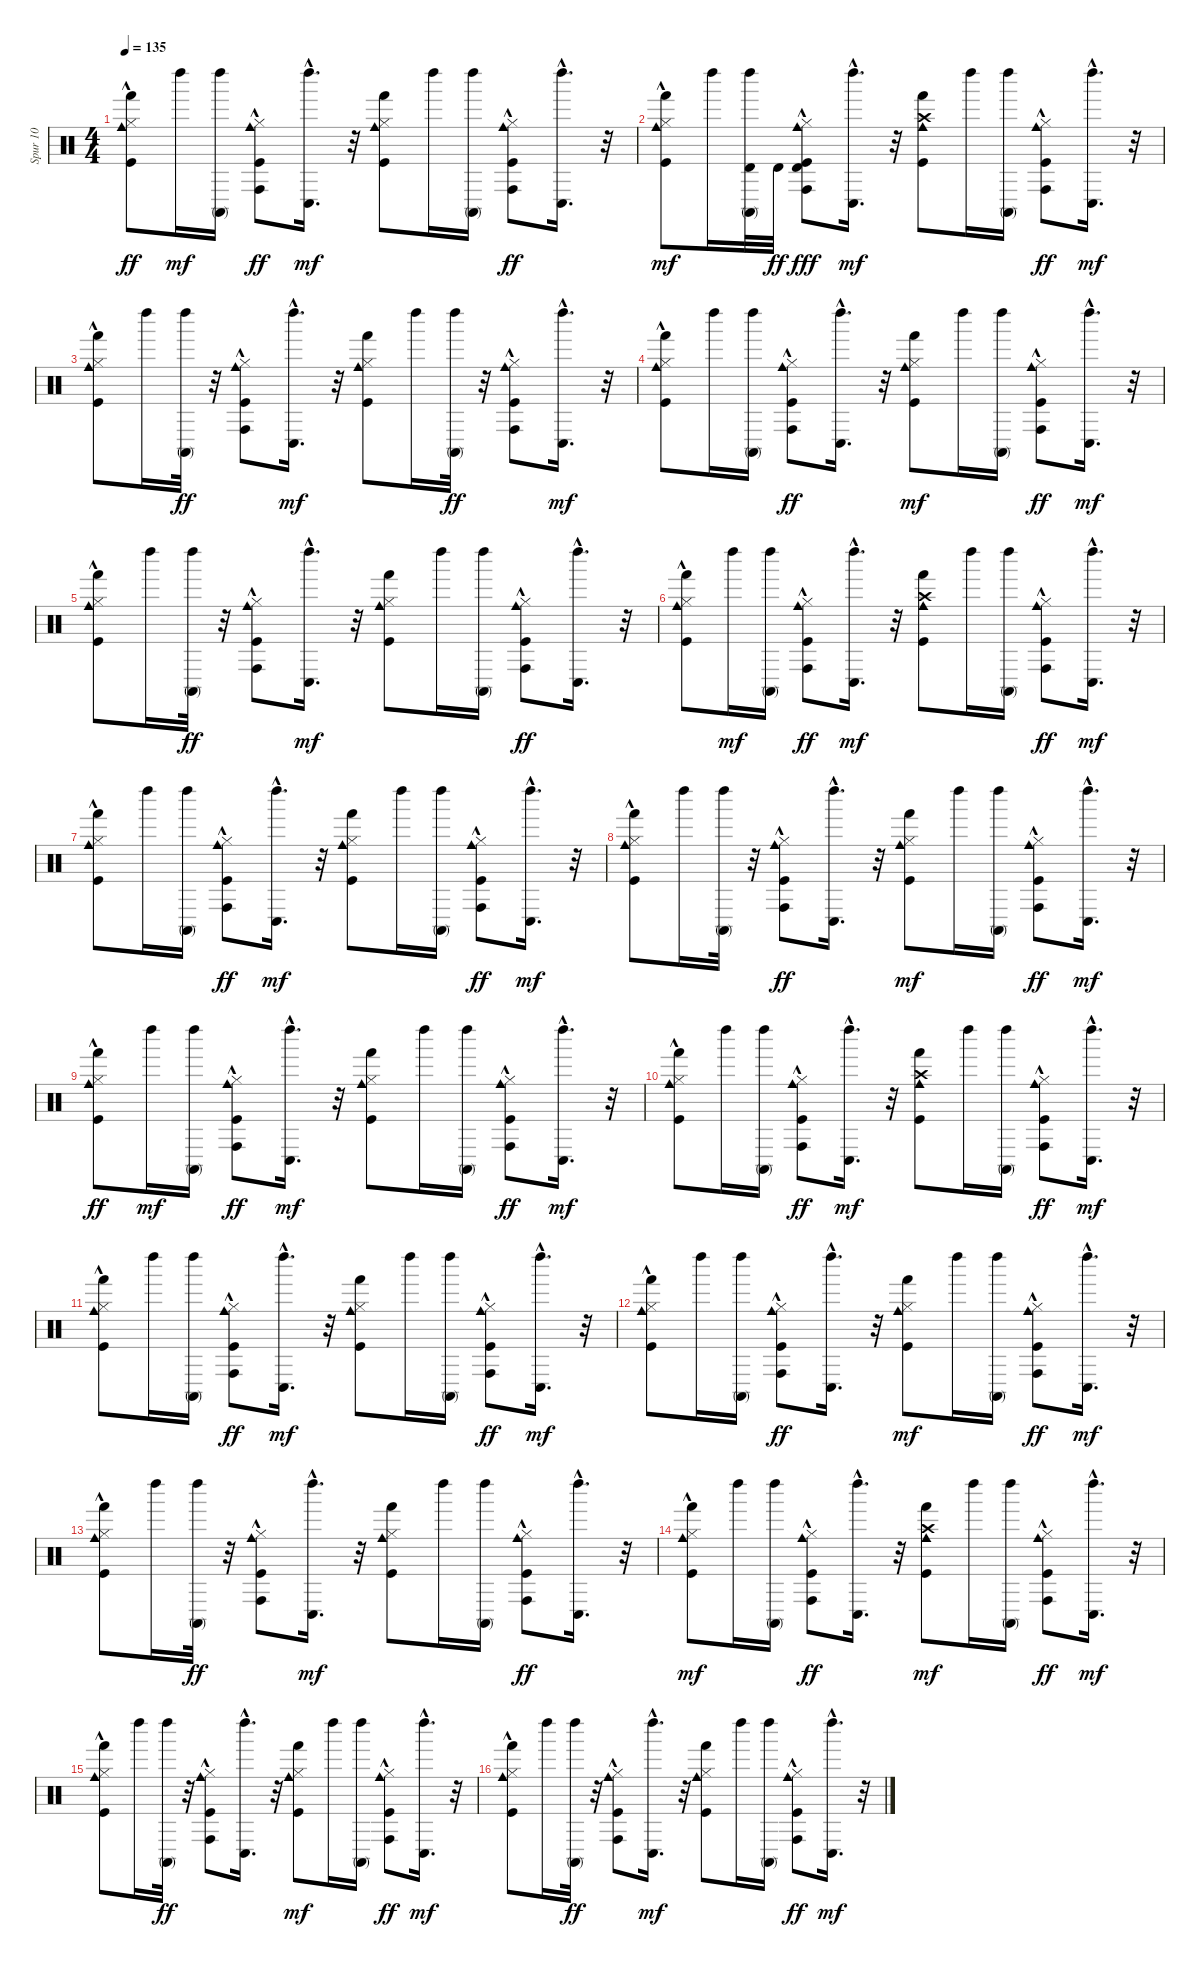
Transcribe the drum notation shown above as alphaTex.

\track ("Spur 10" "Spur 10") {instrument percussion}
\staff {score}
\articulation defaults
\ts (4 4)
\tempo 135
\clef neutral
\ks c
("Hi-Hat (closed)" "Cowbell medium (hit)" "Kick (hit)" "Hand (hit)"{hac}).8{dy ff} "Left Maraca (hit)".16{dy mf} ("Conga high (mute)" "Left Maraca (hit)").16 ("Kick (hit)"{hac} "Hi-Hat (closed)" "Cowbell medium (hit)" "Conga high (hit)"{hac}).8{dy ff} ("Conga low (hit)"{hac} "Left Maraca (hit)").16{d dy mf} r.32 ("Kick (hit)" "Hi-Hat (closed)" "Cowbell medium (hit)" "Hand (hit)").8 "Left Maraca (hit)".16 ("Conga high (mute)" "Left Maraca (hit)").16 ("Kick (hit)" "Hi-Hat (closed)" "Cowbell medium (hit)" "Conga high (hit)"{hac}).8{dy ff} ("Left Maraca (hit)" "Conga low (hit)"{hac}).16{d} r.32 |
("Kick (hit)" "Hi-Hat (closed)" "Cowbell medium (hit)" "Hand (hit)"{hac}).8{dy mf} "Left Maraca (hit)".16 ("Conga high (mute)" "Timbale high (hit)" "Left Maraca (hit)").32 "Timbale high (hit)".32{dy ff} ("Kick (hit)"{hac} "Hi-Hat (closed)" "Cowbell medium (hit)" "Conga high (hit)"{hac} "Timbale high (hit)").8{dy fff} ("Conga low (hit)"{hac} "Left Maraca (hit)").16{d dy mf} r.32 ("Kick (hit)" "Crash high (hit)" "Cowbell medium (hit)" "Hand (hit)").8 "Left Maraca (hit)".16 ("Conga high (mute)" "Left Maraca (hit)").16 ("Kick (hit)" "Hi-Hat (closed)" "Cowbell medium (hit)" "Conga high (hit)"{hac}).8{dy ff} ("Conga low (hit)"{hac} "Left Maraca (hit)").16{d dy mf} r.32 |
("Hi-Hat (closed)" "Kick (hit)" "Cowbell medium (hit)" "Hand (hit)"{hac}).8 "Left Maraca (hit)".16 ("Left Maraca (hit)" "Conga high (mute)").32{dy ff} r.32 ("Kick (hit)"{hac} "Hi-Hat (closed)" "Cowbell medium (hit)" "Conga high (hit)"{hac}).8 ("Conga low (hit)"{hac} "Left Maraca (hit)").16{d dy mf} r.32 ("Kick (hit)" "Hi-Hat (closed)" "Cowbell medium (hit)" "Hand (hit)").8 "Left Maraca (hit)".16 ("Left Maraca (hit)" "Conga high (mute)").32{dy ff} r.32 ("Kick (hit)" "Hi-Hat (closed)" "Cowbell medium (hit)" "Conga high (hit)"{hac}).8 ("Conga low (hit)"{hac} "Left Maraca (hit)").16{d dy mf} r.32 |
("Kick (hit)" "Hi-Hat (closed)" "Cowbell medium (hit)" "Hand (hit)"{hac}).8 "Left Maraca (hit)".16 ("Conga high (mute)" "Left Maraca (hit)").16 ("Kick (hit)"{hac} "Hi-Hat (closed)" "Cowbell medium (hit)" "Conga high (hit)"{hac}).8{dy ff} ("Left Maraca (hit)" "Conga low (hit)"{hac}).16{d} r.32 ("Kick (hit)" "Hi-Hat (closed)" "Cowbell medium (hit)" "Hand (hit)").8{dy mf} "Left Maraca (hit)".16 ("Conga high (mute)" "Left Maraca (hit)").16 ("Hi-Hat (closed)" "Kick (hit)" "Cowbell medium (hit)" "Conga high (hit)"{hac}).8{dy ff} ("Conga low (hit)"{hac} "Left Maraca (hit)").16{d dy mf} r.32 |
("Kick (hit)" "Hi-Hat (closed)" "Cowbell medium (hit)" "Hand (hit)"{hac}).8 "Left Maraca (hit)".16 ("Left Maraca (hit)" "Conga high (mute)").32{dy ff} r.32 ("Kick (hit)"{hac} "Hi-Hat (closed)" "Cowbell medium (hit)" "Conga high (hit)"{hac}).8 ("Conga low (hit)"{hac} "Left Maraca (hit)").16{d dy mf} r.32 ("Kick (hit)" "Hi-Hat (closed)" "Cowbell medium (hit)" "Hand (hit)").8 "Left Maraca (hit)".16 ("Conga high (mute)" "Left Maraca (hit)").16 ("Kick (hit)" "Hi-Hat (closed)" "Cowbell medium (hit)" "Conga high (hit)"{hac}).8{dy ff} ("Left Maraca (hit)" "Conga low (hit)"{hac}).16{d} r.32 |
("Hi-Hat (closed)" "Cowbell medium (hit)" "Kick (hit)" "Hand (hit)"{hac}).8 "Left Maraca (hit)".16{dy mf} ("Conga high (mute)" "Left Maraca (hit)").16 ("Kick (hit)"{hac} "Hi-Hat (closed)" "Cowbell medium (hit)" "Conga high (hit)"{hac}).8{dy ff} ("Conga low (hit)"{hac} "Left Maraca (hit)").16{d dy mf} r.32 ("Kick (hit)" "Crash high (hit)" "Cowbell medium (hit)" "Hand (hit)").8 "Left Maraca (hit)".16 ("Conga high (mute)" "Left Maraca (hit)").16 ("Kick (hit)" "Hi-Hat (closed)" "Cowbell medium (hit)" "Conga high (hit)"{hac}).8{dy ff} ("Conga low (hit)"{hac} "Left Maraca (hit)").16{d dy mf} r.32 |
("Kick (hit)" "Hi-Hat (closed)" "Cowbell medium (hit)" "Hand (hit)"{hac}).8 "Left Maraca (hit)".16 ("Conga high (mute)" "Left Maraca (hit)").16 ("Kick (hit)"{hac} "Hi-Hat (closed)" "Cowbell medium (hit)" "Conga high (hit)"{hac}).8{dy ff} ("Conga low (hit)"{hac} "Left Maraca (hit)").16{d dy mf} r.32 ("Kick (hit)" "Hi-Hat (closed)" "Cowbell medium (hit)" "Hand (hit)").8 "Left Maraca (hit)".16 ("Conga high (mute)" "Left Maraca (hit)").16 ("Kick (hit)" "Hi-Hat (closed)" "Cowbell medium (hit)" "Conga high (hit)"{hac}).8{dy ff} ("Conga low (hit)"{hac} "Left Maraca (hit)").16{d dy mf} r.32 |
("Kick (hit)" "Hi-Hat (closed)" "Cowbell medium (hit)" "Hand (hit)"{hac}).8 "Left Maraca (hit)".16 ("Conga high (mute)" "Left Maraca (hit)").32 r.32 ("Kick (hit)"{hac} "Hi-Hat (closed)" "Cowbell medium (hit)" "Conga high (hit)"{hac}).8{dy ff} ("Left Maraca (hit)" "Conga low (hit)"{hac}).16{d} r.32 ("Kick (hit)" "Hi-Hat (closed)" "Cowbell medium (hit)" "Hand (hit)").8{dy mf} "Left Maraca (hit)".16 ("Conga high (mute)" "Left Maraca (hit)").16 ("Kick (hit)" "Hi-Hat (closed)" "Cowbell medium (hit)" "Conga high (hit)"{hac}).8{dy ff} ("Conga low (hit)"{hac} "Left Maraca (hit)").16{d dy mf} r.32 |
("Hi-Hat (closed)" "Cowbell medium (hit)" "Kick (hit)" "Hand (hit)"{hac}).8{dy ff} "Left Maraca (hit)".16{dy mf} ("Conga high (mute)" "Left Maraca (hit)").16 ("Kick (hit)"{hac} "Hi-Hat (closed)" "Cowbell medium (hit)" "Conga high (hit)"{hac}).8{dy ff} ("Conga low (hit)"{hac} "Left Maraca (hit)").16{d dy mf} r.32 ("Hi-Hat (closed)" "Kick (hit)" "Cowbell medium (hit)" "Hand (hit)").8 "Left Maraca (hit)".16 ("Conga high (mute)" "Left Maraca (hit)").16 ("Kick (hit)" "Hi-Hat (closed)" "Cowbell medium (hit)" "Conga high (hit)"{hac}).8{dy ff} ("Conga low (hit)"{hac} "Left Maraca (hit)").16{d dy mf} r.32 |
("Hi-Hat (closed)" "Kick (hit)" "Cowbell medium (hit)" "Hand (hit)"{hac}).8 "Left Maraca (hit)".16 ("Conga high (mute)" "Left Maraca (hit)").16 ("Hi-Hat (closed)" "Kick (hit)"{hac} "Cowbell medium (hit)" "Conga high (hit)"{hac}).8{dy ff} ("Conga low (hit)"{hac} "Left Maraca (hit)").16{d dy mf} r.32 ("Crash high (hit)" "Kick (hit)" "Cowbell medium (hit)" "Hand (hit)").8 "Left Maraca (hit)".16 ("Conga high (mute)" "Left Maraca (hit)").16 ("Hi-Hat (closed)" "Kick (hit)" "Cowbell medium (hit)" "Conga high (hit)"{hac}).8{dy ff} ("Conga low (hit)"{hac} "Left Maraca (hit)").16{d dy mf} r.32 |
("Hi-Hat (closed)" "Kick (hit)" "Cowbell medium (hit)" "Hand (hit)"{hac}).8 "Left Maraca (hit)".16 ("Conga high (mute)" "Left Maraca (hit)").16 ("Kick (hit)"{hac} "Hi-Hat (closed)" "Cowbell medium (hit)" "Conga high (hit)"{hac}).8{dy ff} ("Conga low (hit)"{hac} "Left Maraca (hit)").16{d dy mf} r.32 ("Kick (hit)" "Hi-Hat (closed)" "Cowbell medium (hit)" "Hand (hit)").8 "Left Maraca (hit)".16 ("Conga high (mute)" "Left Maraca (hit)").16 ("Kick (hit)" "Hi-Hat (closed)" "Cowbell medium (hit)" "Conga high (hit)"{hac}).8{dy ff} ("Conga low (hit)"{hac} "Left Maraca (hit)").16{d dy mf} r.32 |
("Hi-Hat (closed)" "Kick (hit)" "Cowbell medium (hit)" "Hand (hit)"{hac}).8 "Left Maraca (hit)".16 ("Conga high (mute)" "Left Maraca (hit)").16 ("Kick (hit)"{hac} "Hi-Hat (closed)" "Cowbell medium (hit)" "Conga high (hit)"{hac}).8{dy ff} ("Left Maraca (hit)" "Conga low (hit)"{hac}).16{d} r.32 ("Kick (hit)" "Hi-Hat (closed)" "Cowbell medium (hit)" "Hand (hit)").8{dy mf} "Left Maraca (hit)".16 ("Conga high (mute)" "Left Maraca (hit)").16 ("Kick (hit)" "Hi-Hat (closed)" "Cowbell medium (hit)" "Conga high (hit)"{hac}).8{dy ff} ("Conga low (hit)"{hac} "Left Maraca (hit)").16{d dy mf} r.32 |
("Kick (hit)" "Hi-Hat (closed)" "Cowbell medium (hit)" "Hand (hit)"{hac}).8 "Left Maraca (hit)".16 ("Left Maraca (hit)" "Conga high (mute)").32{dy ff} r.32 ("Hi-Hat (closed)" "Kick (hit)"{hac} "Cowbell medium (hit)" "Conga high (hit)"{hac}).8 ("Conga low (hit)"{hac} "Left Maraca (hit)").16{d dy mf} r.32 ("Hi-Hat (closed)" "Kick (hit)" "Cowbell medium (hit)" "Hand (hit)").8 "Left Maraca (hit)".16 ("Conga high (mute)" "Left Maraca (hit)").16 ("Kick (hit)" "Hi-Hat (closed)" "Cowbell medium (hit)" "Conga high (hit)"{hac}).8{dy ff} ("Left Maraca (hit)" "Conga low (hit)"{hac}).16{d} r.32 |
("Kick (hit)" "Hi-Hat (closed)" "Cowbell medium (hit)" "Hand (hit)"{hac}).8{dy mf} "Left Maraca (hit)".16 ("Conga high (mute)" "Left Maraca (hit)").16 ("Kick (hit)"{hac} "Hi-Hat (closed)" "Cowbell medium (hit)" "Conga high (hit)"{hac}).8{dy ff} ("Left Maraca (hit)" "Conga low (hit)"{hac}).16{d} r.32 ("Crash high (hit)" "Kick (hit)" "Cowbell medium (hit)" "Hand (hit)").8{dy mf} "Left Maraca (hit)".16 ("Conga high (mute)" "Left Maraca (hit)").16 ("Kick (hit)" "Hi-Hat (closed)" "Cowbell medium (hit)" "Conga high (hit)"{hac}).8{dy ff} ("Conga low (hit)"{hac} "Left Maraca (hit)").16{d dy mf} r.32 |
("Kick (hit)" "Hi-Hat (closed)" "Cowbell medium (hit)" "Hand (hit)"{hac}).8 "Left Maraca (hit)".16 ("Left Maraca (hit)" "Conga high (mute)").32{dy ff} r.32 ("Hi-Hat (closed)" "Kick (hit)"{hac} "Cowbell medium (hit)" "Conga high (hit)"{hac}).8 ("Left Maraca (hit)" "Conga low (hit)"{hac}).16{d} r.32 ("Kick (hit)" "Hi-Hat (closed)" "Cowbell medium (hit)" "Hand (hit)").8{dy mf} "Left Maraca (hit)".16 ("Conga high (mute)" "Left Maraca (hit)").16 ("Kick (hit)" "Hi-Hat (closed)" "Cowbell medium (hit)" "Conga high (hit)"{hac}).8{dy ff} ("Conga low (hit)"{hac} "Left Maraca (hit)").16{d dy mf} r.32 |
("Kick (hit)" "Hi-Hat (closed)" "Cowbell medium (hit)" "Hand (hit)"{hac}).8 "Left Maraca (hit)".16 ("Left Maraca (hit)" "Conga high (mute)").32{dy ff} r.32 ("Hi-Hat (closed)" "Cowbell medium (hit)" "Kick (hit)"{hac} "Conga high (hit)"{hac}).8 ("Conga low (hit)"{hac} "Left Maraca (hit)").16{d dy mf} r.32 ("Kick (hit)" "Hi-Hat (closed)" "Cowbell medium (hit)" "Hand (hit)").8 "Left Maraca (hit)".16 ("Conga high (mute)" "Left Maraca (hit)").16 ("Kick (hit)" "Hi-Hat (closed)" "Cowbell medium (hit)" "Conga high (hit)"{hac}).8{dy ff} ("Conga low (hit)"{hac} "Left Maraca (hit)").16{d dy mf} r.32
